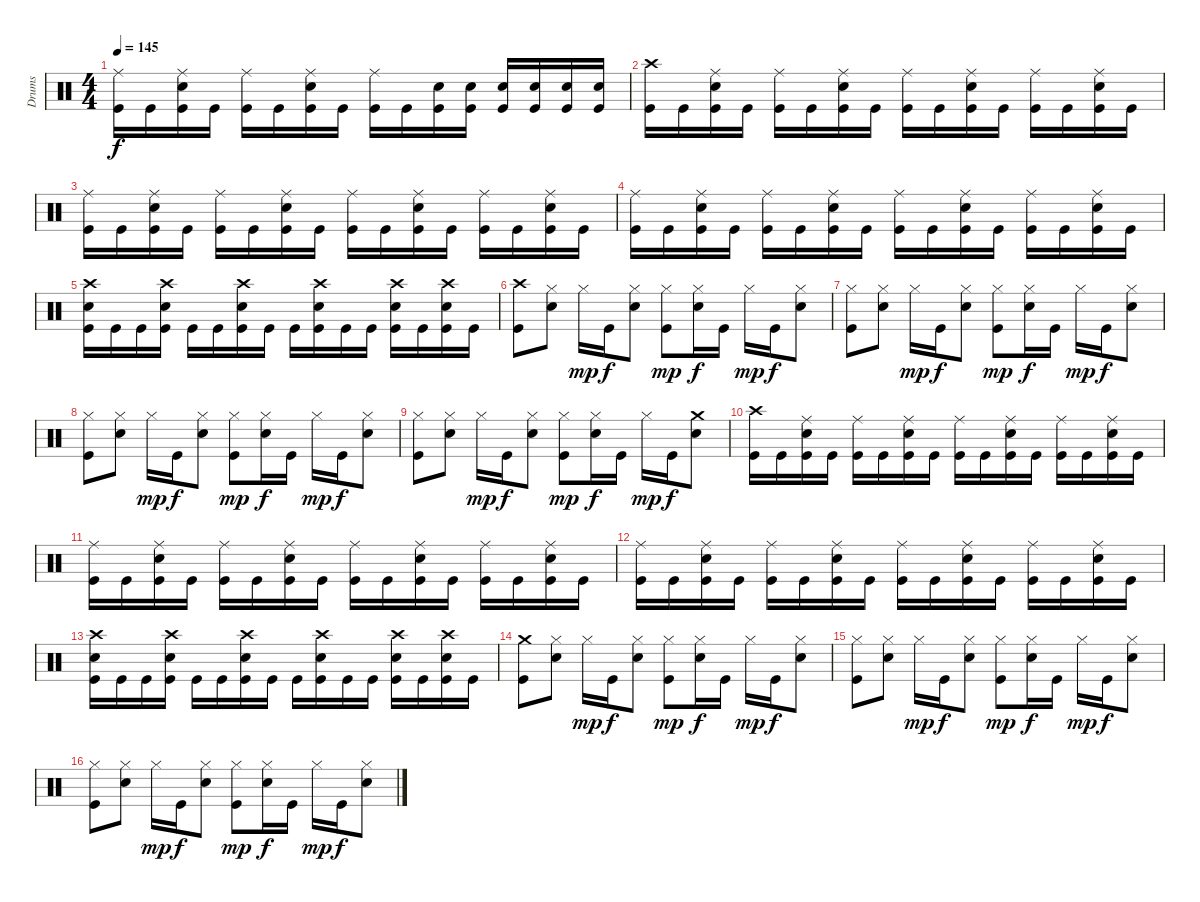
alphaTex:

\track ("Drums" "Drums") {instrument percussion}
\staff {score}
\articulation defaults
\ts (4 4)
\tempo 145
\clef neutral
\ks c
("Ride (middle)" "Kick (hit)").16{dy f} "Kick (hit)".16 ("Ride (middle)" "Snare (hit) 2" "Kick (hit)").16 "Kick (hit)".16 ("Ride (middle)" "Kick (hit)").16 "Kick (hit)".16 ("Ride (middle)" "Snare (hit) 2" "Kick (hit)").16 "Kick (hit)".16 ("Ride (middle)" "Kick (hit)").16 "Kick (hit)".16 ("Snare (hit) 2" "Kick (hit)").16 ("Snare (hit) 2" "Kick (hit)").16 ("Snare (hit) 2" "Kick (hit)").16 ("Snare (hit) 2" "Kick (hit)").16 ("Snare (hit) 2" "Kick (hit)").16 ("Snare (hit) 2" "Kick (hit)").16 |
("Crash high (hit)" "Kick (hit)").16 "Kick (hit)".16 ("Ride (middle)" "Snare (hit) 2" "Kick (hit)").16 "Kick (hit)".16 ("Ride (middle)" "Kick (hit)").16 "Kick (hit)".16 ("Ride (middle)" "Snare (hit) 2" "Kick (hit)").16 "Kick (hit)".16 ("Ride (middle)" "Kick (hit)").16 "Kick (hit)".16 ("Ride (middle)" "Snare (hit) 2" "Kick (hit)").16 "Kick (hit)".16 ("Ride (middle)" "Kick (hit)").16 "Kick (hit)".16 ("Ride (middle)" "Snare (hit) 2" "Kick (hit)").16 "Kick (hit)".16 |
("Ride (middle)" "Kick (hit)").16 "Kick (hit)".16 ("Ride (middle)" "Snare (hit) 2" "Kick (hit)").16 "Kick (hit)".16 ("Ride (middle)" "Kick (hit)").16 "Kick (hit)".16 ("Ride (middle)" "Snare (hit) 2" "Kick (hit)").16 "Kick (hit)".16 ("Ride (middle)" "Kick (hit)").16 "Kick (hit)".16 ("Ride (middle)" "Snare (hit) 2" "Kick (hit)").16 "Kick (hit)".16 ("Ride (middle)" "Kick (hit)").16 "Kick (hit)".16 ("Ride (middle)" "Snare (hit) 2" "Kick (hit)").16 "Kick (hit)".16 |
("Ride (middle)" "Kick (hit)").16 "Kick (hit)".16 ("Ride (middle)" "Snare (hit) 2" "Kick (hit)").16 "Kick (hit)".16 ("Ride (middle)" "Kick (hit)").16 "Kick (hit)".16 ("Ride (middle)" "Snare (hit) 2" "Kick (hit)").16 "Kick (hit)".16 ("Ride (middle)" "Kick (hit)").16 "Kick (hit)".16 ("Ride (middle)" "Snare (hit) 2" "Kick (hit)").16 "Kick (hit)".16 ("Ride (middle)" "Kick (hit)").16 "Kick (hit)".16 ("Ride (middle)" "Snare (hit) 2" "Kick (hit)").16 "Kick (hit)".16 |
("Crash high (hit)" "Snare (hit) 2" "Kick (hit)").16 "Kick (hit)".16 "Kick (hit)".16 ("Crash high (hit)" "Snare (hit) 2" "Kick (hit)").16 "Kick (hit)".16 "Kick (hit)".16 ("Crash high (hit)" "Snare (hit) 2" "Kick (hit)").16 "Kick (hit)".16 "Kick (hit)".16 ("Crash high (hit)" "Snare (hit) 2" "Kick (hit)").16 "Kick (hit)".16 "Kick (hit)".16 ("Crash high (hit)" "Snare (hit) 2" "Kick (hit)").16 "Kick (hit)".16 ("Crash high (hit)" "Snare (hit) 2" "Kick (hit)").16 "Kick (hit)".16 |
("Crash high (hit)" "Kick (hit)").8 ("Hi-Hat (closed)" "Snare (hit) 2").8 "Hi-Hat (closed)".16{dy mp} "Kick (hit)".16{dy f} ("Hi-Hat (closed)" "Snare (hit) 2").8 ("Hi-Hat (closed)" "Kick (hit)").8{dy mp} ("Hi-Hat (closed)" "Snare (hit) 2").16{dy f} "Kick (hit)".16 "Hi-Hat (closed)".16{dy mp} "Kick (hit)".16{dy f} ("Hi-Hat (closed)" "Snare (hit) 2").8 |
("Hi-Hat (closed)" "Kick (hit)").8 ("Hi-Hat (closed)" "Snare (hit) 2").8 "Hi-Hat (closed)".16{dy mp} "Kick (hit)".16{dy f} ("Hi-Hat (closed)" "Snare (hit) 2").8 ("Hi-Hat (closed)" "Kick (hit)").8{dy mp} ("Hi-Hat (closed)" "Snare (hit) 2").16{dy f} "Kick (hit)".16 "Hi-Hat (closed)".16{dy mp} "Kick (hit)".16{dy f} ("Hi-Hat (closed)" "Snare (hit) 2").8 |
("Hi-Hat (closed)" "Kick (hit)").8 ("Hi-Hat (closed)" "Snare (hit) 2").8 "Hi-Hat (closed)".16{dy mp} "Kick (hit)".16{dy f} ("Hi-Hat (closed)" "Snare (hit) 2").8 ("Hi-Hat (closed)" "Kick (hit)").8{dy mp} ("Hi-Hat (closed)" "Snare (hit) 2").16{dy f} "Kick (hit)".16 "Hi-Hat (closed)".16{dy mp} "Kick (hit)".16{dy f} ("Hi-Hat (closed)" "Snare (hit) 2").8 |
("Hi-Hat (closed)" "Kick (hit)").8 ("Hi-Hat (closed)" "Snare (hit) 2").8 "Hi-Hat (closed)".16{dy mp} "Kick (hit)".16{dy f} ("Hi-Hat (closed)" "Snare (hit) 2").8 ("Hi-Hat (closed)" "Kick (hit)").8{dy mp} ("Hi-Hat (closed)" "Snare (hit) 2").16{dy f} "Kick (hit)".16 "Hi-Hat (closed)".16{dy mp} "Kick (hit)".16{dy f} ("Crash medium (hit)" "Snare (hit) 2").8 |
("Crash high (hit)" "Kick (hit)").16 "Kick (hit)".16 ("Ride (middle)" "Snare (hit) 2" "Kick (hit)").16 "Kick (hit)".16 ("Ride (middle)" "Kick (hit)").16 "Kick (hit)".16 ("Ride (middle)" "Snare (hit) 2" "Kick (hit)").16 "Kick (hit)".16 ("Ride (middle)" "Kick (hit)").16 "Kick (hit)".16 ("Ride (middle)" "Snare (hit) 2" "Kick (hit)").16 "Kick (hit)".16 ("Ride (middle)" "Kick (hit)").16 "Kick (hit)".16 ("Ride (middle)" "Snare (hit) 2" "Kick (hit)").16 "Kick (hit)".16 |
("Ride (middle)" "Kick (hit)").16 "Kick (hit)".16 ("Ride (middle)" "Snare (hit) 2" "Kick (hit)").16 "Kick (hit)".16 ("Ride (middle)" "Kick (hit)").16 "Kick (hit)".16 ("Ride (middle)" "Snare (hit) 2" "Kick (hit)").16 "Kick (hit)".16 ("Ride (middle)" "Kick (hit)").16 "Kick (hit)".16 ("Ride (middle)" "Snare (hit) 2" "Kick (hit)").16 "Kick (hit)".16 ("Ride (middle)" "Kick (hit)").16 "Kick (hit)".16 ("Ride (middle)" "Snare (hit) 2" "Kick (hit)").16 "Kick (hit)".16 |
("Ride (middle)" "Kick (hit)").16 "Kick (hit)".16 ("Ride (middle)" "Snare (hit) 2" "Kick (hit)").16 "Kick (hit)".16 ("Ride (middle)" "Kick (hit)").16 "Kick (hit)".16 ("Ride (middle)" "Snare (hit) 2" "Kick (hit)").16 "Kick (hit)".16 ("Ride (middle)" "Kick (hit)").16 "Kick (hit)".16 ("Ride (middle)" "Snare (hit) 2" "Kick (hit)").16 "Kick (hit)".16 ("Ride (middle)" "Kick (hit)").16 "Kick (hit)".16 ("Ride (middle)" "Snare (hit) 2" "Kick (hit)").16 "Kick (hit)".16 |
("Crash high (hit)" "Snare (hit) 2" "Kick (hit)").16 "Kick (hit)".16 "Kick (hit)".16 ("Crash high (hit)" "Snare (hit) 2" "Kick (hit)").16 "Kick (hit)".16 "Kick (hit)".16 ("Crash high (hit)" "Snare (hit) 2" "Kick (hit)").16 "Kick (hit)".16 "Kick (hit)".16 ("Crash high (hit)" "Snare (hit) 2" "Kick (hit)").16 "Kick (hit)".16 "Kick (hit)".16 ("Crash high (hit)" "Snare (hit) 2" "Kick (hit)").16 "Kick (hit)".16 ("Crash high (hit)" "Snare (hit) 2" "Kick (hit)").16 "Kick (hit)".16 |
("Crash medium (hit)" "Kick (hit)").8 ("Hi-Hat (closed)" "Snare (hit) 2").8 "Hi-Hat (closed)".16{dy mp} "Kick (hit)".16{dy f} ("Hi-Hat (closed)" "Snare (hit) 2").8 ("Hi-Hat (closed)" "Kick (hit)").8{dy mp} ("Hi-Hat (closed)" "Snare (hit) 2").16{dy f} "Kick (hit)".16 "Hi-Hat (closed)".16{dy mp} "Kick (hit)".16{dy f} ("Hi-Hat (closed)" "Snare (hit) 2").8 |
("Hi-Hat (closed)" "Kick (hit)").8 ("Hi-Hat (closed)" "Snare (hit) 2").8 "Hi-Hat (closed)".16{dy mp} "Kick (hit)".16{dy f} ("Hi-Hat (closed)" "Snare (hit) 2").8 ("Hi-Hat (closed)" "Kick (hit)").8{dy mp} ("Hi-Hat (closed)" "Snare (hit) 2").16{dy f} "Kick (hit)".16 "Hi-Hat (closed)".16{dy mp} "Kick (hit)".16{dy f} ("Hi-Hat (closed)" "Snare (hit) 2").8 |
("Hi-Hat (closed)" "Kick (hit)").8 ("Hi-Hat (closed)" "Snare (hit) 2").8 "Hi-Hat (closed)".16{dy mp} "Kick (hit)".16{dy f} ("Hi-Hat (closed)" "Snare (hit) 2").8 ("Hi-Hat (closed)" "Kick (hit)").8{dy mp} ("Hi-Hat (closed)" "Snare (hit) 2").16{dy f} "Kick (hit)".16 "Hi-Hat (closed)".16{dy mp} "Kick (hit)".16{dy f} ("Hi-Hat (closed)" "Snare (hit) 2").8
